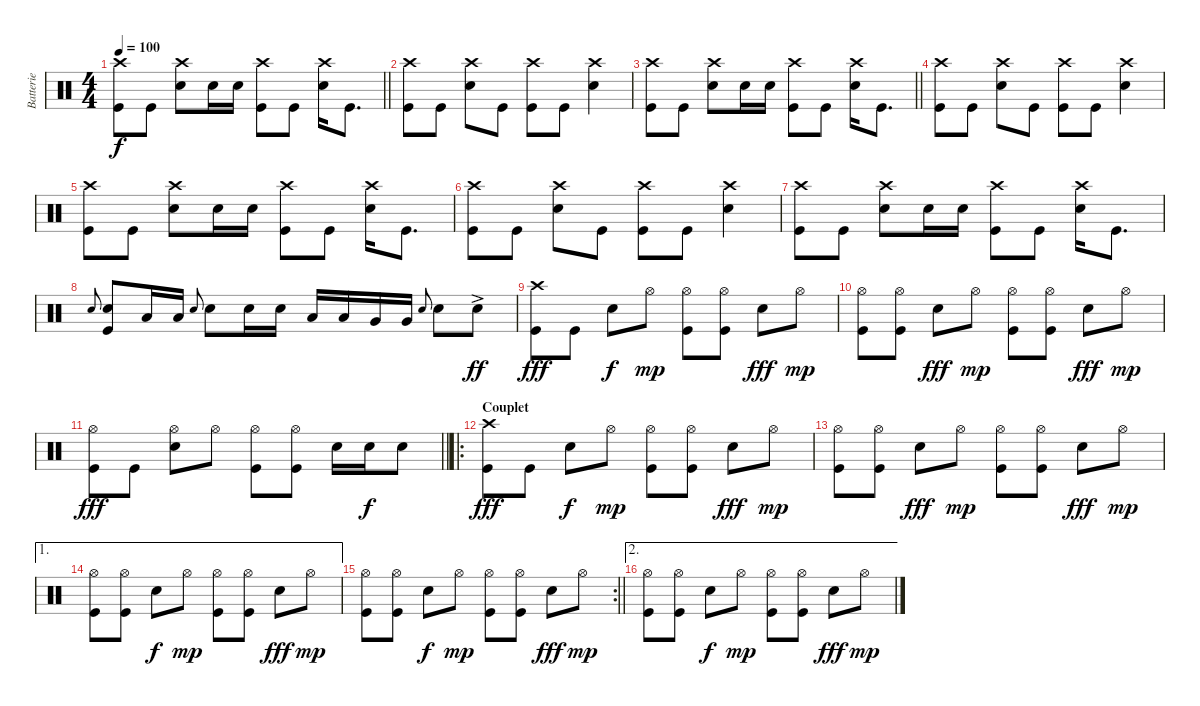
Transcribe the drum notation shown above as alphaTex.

\track ("Batterie" "Batterie") {instrument percussion}
\staff {score}
\articulation defaults
\ts (4 4)
\tempo 100
\clef neutral
\barLineRight lightlight
\ks c
("Crash high (hit)" "Kick (hit)").8{dy f} "Kick (hit)".8 ("Snare (hit) 2" "Crash high (hit)").8 "Snare (hit) 2".16 "Snare (hit) 2".16 ("Crash high (hit)" "Kick (hit)").8 "Kick (hit)".8 ("Snare (hit) 2" "Crash high (hit)").16 "Kick (hit)".8{d} |
("Crash high (hit)" "Kick (hit)").8 "Kick (hit)".8 ("Snare (hit) 2" "Crash high (hit)").8 "Kick (hit)".8 ("Crash high (hit)" "Kick (hit)").8 "Kick (hit)".8 ("Snare (hit) 2" "Crash high (hit)").4 |
\barLineRight lightlight
("Crash high (hit)" "Kick (hit)").8 "Kick (hit)".8 ("Snare (hit) 2" "Crash high (hit)").8 "Snare (hit) 2".16 "Snare (hit) 2".16 ("Crash high (hit)" "Kick (hit)").8 "Kick (hit)".8 ("Snare (hit) 2" "Crash high (hit)").16 "Kick (hit)".8{d} |
("Crash high (hit)" "Kick (hit)").8 "Kick (hit)".8 ("Snare (hit) 2" "Crash high (hit)").8 "Kick (hit)".8 ("Crash high (hit)" "Kick (hit)").8 "Kick (hit)".8 ("Snare (hit) 2" "Crash high (hit)").4 |
("Crash high (hit)" "Kick (hit)").8 "Kick (hit)".8 ("Snare (hit) 2" "Crash high (hit)").8 "Snare (hit) 2".16 "Snare (hit) 2".16 ("Crash high (hit)" "Kick (hit)").8 "Kick (hit)".8 ("Snare (hit) 2" "Crash high (hit)").16 "Kick (hit)".8{d} |
("Crash high (hit)" "Kick (hit)").8 "Kick (hit)".8 ("Snare (hit) 2" "Crash high (hit)").8 "Kick (hit)".8 ("Crash high (hit)" "Kick (hit)").8 "Kick (hit)".8 ("Snare (hit) 2" "Crash high (hit)").4 |
("Crash high (hit)" "Kick (hit)").8 "Kick (hit)".8 ("Snare (hit) 2" "Crash high (hit)").8 "Snare (hit) 2".16 "Snare (hit) 2".16 ("Crash high (hit)" "Kick (hit)").8 "Kick (hit)".8 ("Snare (hit) 2" "Crash high (hit)").16 "Kick (hit)".8{d} |
"Snare (hit) 2".8{gr onbeat} ("Snare (hit) 2" "Kick (hit)").8 "Low Tom (hit)".16 "Low Tom (hit)".16 "Snare (hit) 2".8{gr onbeat} "Snare (hit) 2".8 "Snare (hit) 2".16 "Snare (hit) 2".16 "Low Tom (hit)".16 "Low Tom (hit)".16 "Very Low Tom (hit)".16 "Very Low Tom (hit)".16 "Snare (hit) 2".8{gr onbeat} "Snare (hit) 2".8 "Snare (hit) 2"{ac}.8{dy ff} |
("Kick (hit)" "Crash high (hit)").8{dy fff} "Kick (hit)".8 "Electric Snare (hit)".8{dy f} "Hi-Hat (open)".8{dy mp} ("Kick (hit)" "Hi-Hat (open)").8 ("Kick (hit)" "Hi-Hat (open)").8 "Snare (hit) 2".8{dy fff} "Hi-Hat (open)".8{dy mp} |
("Kick (hit)" "Hi-Hat (open)").8 ("Kick (hit)" "Hi-Hat (open)").8 "Snare (hit) 2".8{dy fff} "Hi-Hat (open)".8{dy mp} ("Kick (hit)" "Hi-Hat (open)").8 ("Kick (hit)" "Hi-Hat (open)").8 "Snare (hit) 2".8{dy fff} "Hi-Hat (open)".8{dy mp} |
\barLineRight lightlight
("Kick (hit)" "Hi-Hat (open)").8{dy fff} "Kick (hit)".8 ("Snare (hit) 2" "Hi-Hat (open)").8 "Hi-Hat (open)".8 ("Kick (hit)" "Hi-Hat (open)").8 ("Kick (hit)" "Hi-Hat (open)").8 "Snare (hit) 2".16 "Snare (hit) 2".16{dy f} "Snare (hit) 2".8 |
\ro
\section ("" "Couplet")
("Kick (hit)" "Crash high (hit)").8{dy fff} "Kick (hit)".8 "Electric Snare (hit)".8{dy f} "Hi-Hat (open)".8{dy mp} ("Kick (hit)" "Hi-Hat (open)").8 ("Kick (hit)" "Hi-Hat (open)").8 "Snare (hit) 2".8{dy fff} "Hi-Hat (open)".8{dy mp} |
("Kick (hit)" "Hi-Hat (open)").8 ("Kick (hit)" "Hi-Hat (open)").8 "Snare (hit) 2".8{dy fff} "Hi-Hat (open)".8{dy mp} ("Kick (hit)" "Hi-Hat (open)").8 ("Kick (hit)" "Hi-Hat (open)").8 "Snare (hit) 2".8{dy fff} "Hi-Hat (open)".8{dy mp} |
\ae 1
("Kick (hit)" "Hi-Hat (open)").8 ("Kick (hit)" "Hi-Hat (open)").8 "Electric Snare (hit)".8{dy f} "Hi-Hat (open)".8{dy mp} ("Kick (hit)" "Hi-Hat (open)").8 ("Kick (hit)" "Hi-Hat (open)").8 "Snare (hit) 2".8{dy fff} "Hi-Hat (open)".8{dy mp} |
\rc 2
\barLineRight lightlight
("Kick (hit)" "Hi-Hat (open)").8 ("Kick (hit)" "Hi-Hat (open)").8 "Electric Snare (hit)".8{dy f} "Hi-Hat (open)".8{dy mp} ("Kick (hit)" "Hi-Hat (open)").8 ("Kick (hit)" "Hi-Hat (open)").8 "Snare (hit) 2".8{dy fff} "Hi-Hat (open)".8{dy mp} |
\ae 2
("Kick (hit)" "Hi-Hat (open)").8 ("Kick (hit)" "Hi-Hat (open)").8 "Electric Snare (hit)".8{dy f} "Hi-Hat (open)".8{dy mp} ("Kick (hit)" "Hi-Hat (open)").8 ("Kick (hit)" "Hi-Hat (open)").8 "Snare (hit) 2".8{dy fff} "Hi-Hat (open)".8{dy mp}
